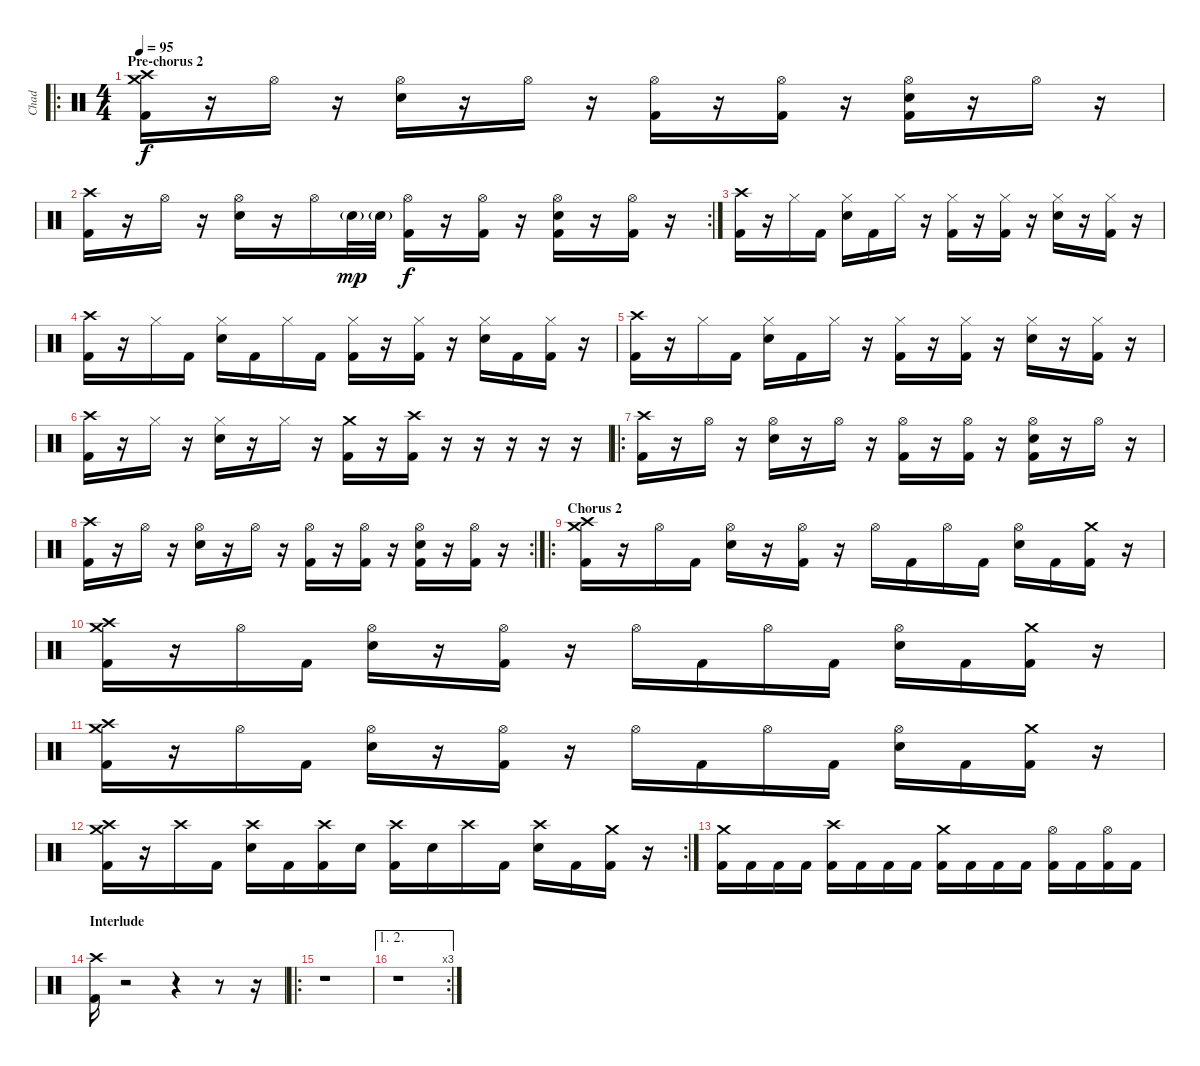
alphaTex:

\track ("Chad" "Chad") {instrument percussion}
\staff {score}
\articulation defaults
\ro
\ts (4 4)
\section ("" "Pre-chorus 2")
\tempo 95
\clef neutral
\ks c
("Kick (hit) 2" "Crash high (hit)" "Crash medium (hit)").16{dy f} r.16 "Hi-Hat (open)".16 r.16 ("Electric Snare (hit)" "Hi-Hat (open)").16 r.16 "Hi-Hat (open)".16 r.16 ("Kick (hit) 2" "Hi-Hat (open)").16 r.16 ("Kick (hit) 2" "Hi-Hat (open)").16 r.16 ("Kick (hit) 2" "Electric Snare (hit)" "Hi-Hat (open)").16 r.16 "Hi-Hat (open)".16 r.16 |
\rc 2
("Kick (hit) 2" "Crash high (hit)").16 r.16 "Hi-Hat (open)".16 r.16 ("Electric Snare (hit)" "Hi-Hat (open)").16 r.16 "Hi-Hat (open)".16 "Electric Snare (hit)"{g}.32{dy mp} "Electric Snare (hit)"{g}.32 ("Kick (hit) 2" "Hi-Hat (open)").16{dy f} r.16 ("Kick (hit) 2" "Hi-Hat (open)").16 r.16 ("Kick (hit) 2" "Electric Snare (hit)" "Hi-Hat (open)").16 r.16 ("Kick (hit) 2" "Hi-Hat (open)").16 r.16 |
("Kick (hit) 2" "Crash high (hit)").16 r.16 "Hi-Hat (closed)".16 "Kick (hit) 2".16 ("Electric Snare (hit)" "Hi-Hat (closed)").16 "Kick (hit) 2".16 "Hi-Hat (closed)".16 r.16 ("Kick (hit) 2" "Hi-Hat (closed)").16 r.16 ("Kick (hit) 2" "Hi-Hat (closed)").16 r.16 ("Electric Snare (hit)" "Hi-Hat (closed)").16 r.16 ("Kick (hit) 2" "Hi-Hat (closed)").16 r.16 |
("Kick (hit) 2" "Crash high (hit)").16 r.16 "Hi-Hat (closed)".16 "Kick (hit) 2".16 ("Electric Snare (hit)" "Hi-Hat (closed)").16 "Kick (hit) 2".16 "Hi-Hat (closed)".16 "Kick (hit) 2".16 ("Kick (hit) 2" "Hi-Hat (closed)").16 r.16 ("Kick (hit) 2" "Hi-Hat (closed)").16 r.16 ("Electric Snare (hit)" "Hi-Hat (closed)").16 "Kick (hit) 2".16 ("Kick (hit) 2" "Hi-Hat (closed)").16 r.16 |
("Kick (hit) 2" "Crash high (hit)").16 r.16 "Hi-Hat (closed)".16 "Kick (hit) 2".16 ("Electric Snare (hit)" "Hi-Hat (closed)").16 "Kick (hit) 2".16 "Hi-Hat (closed)".16 r.16 ("Kick (hit) 2" "Hi-Hat (closed)").16 r.16 ("Kick (hit) 2" "Hi-Hat (closed)").16 r.16 ("Electric Snare (hit)" "Hi-Hat (closed)").16 r.16 ("Kick (hit) 2" "Hi-Hat (closed)").16 r.16 |
("Kick (hit) 2" "Crash high (hit)").16 r.16 "Hi-Hat (closed)".16 r.16 ("Electric Snare (hit)" "Hi-Hat (closed)").16 r.16 "Hi-Hat (closed)".16 r.16 ("Kick (hit) 2" "Crash medium (hit)").16 r.16 ("Kick (hit) 2" "Crash high (hit)").16 r.16 r.16 r.16 r.16 r.16 |
\ro
("Kick (hit) 2" "Crash high (hit)").16 r.16 "Hi-Hat (open)".16 r.16 ("Electric Snare (hit)" "Hi-Hat (open)").16 r.16 "Hi-Hat (open)".16 r.16 ("Kick (hit) 2" "Hi-Hat (open)").16 r.16 ("Kick (hit) 2" "Hi-Hat (open)").16 r.16 ("Kick (hit) 2" "Electric Snare (hit)" "Hi-Hat (open)").16 r.16 "Hi-Hat (open)".16 r.16 |
\rc 2
("Kick (hit) 2" "Crash high (hit)").16 r.16 "Hi-Hat (open)".16 r.16 ("Electric Snare (hit)" "Hi-Hat (open)").16 r.16 "Hi-Hat (open)".16 r.16 ("Kick (hit) 2" "Hi-Hat (open)").16 r.16 ("Kick (hit) 2" "Hi-Hat (open)").16 r.16 ("Kick (hit) 2" "Electric Snare (hit)" "Hi-Hat (open)").16 r.16 ("Kick (hit) 2" "Hi-Hat (open)").16 r.16 |
\ro
\section ("" "Chorus 2")
("Kick (hit) 2" "Crash high (hit)" "Crash medium (hit)").16 r.16 "Hi-Hat (open)".16 "Kick (hit) 2".16 ("Electric Snare (hit)" "Hi-Hat (open)").16 r.16 ("Kick (hit) 2" "Hi-Hat (open)").16 r.16 "Hi-Hat (open)".16 "Kick (hit) 2".16 "Hi-Hat (open)".16 "Kick (hit) 2".16 ("Electric Snare (hit)" "Hi-Hat (open)").16 "Kick (hit) 2".16 ("Kick (hit) 2" "Crash medium (hit)").16 r.16 |
("Kick (hit) 2" "Crash high (hit)" "Crash medium (hit)").16 r.16 "Hi-Hat (open)".16 "Kick (hit) 2".16 ("Electric Snare (hit)" "Hi-Hat (open)").16 r.16 ("Kick (hit) 2" "Hi-Hat (open)").16 r.16 "Hi-Hat (open)".16 "Kick (hit) 2".16 "Hi-Hat (open)".16 "Kick (hit) 2".16 ("Electric Snare (hit)" "Hi-Hat (open)").16 "Kick (hit) 2".16 ("Kick (hit) 2" "Crash medium (hit)").16 r.16 |
("Kick (hit) 2" "Crash high (hit)" "Crash medium (hit)").16 r.16 "Hi-Hat (open)".16 "Kick (hit) 2".16 ("Electric Snare (hit)" "Hi-Hat (open)").16 r.16 ("Kick (hit) 2" "Hi-Hat (open)").16 r.16 "Hi-Hat (open)".16 "Kick (hit) 2".16 "Hi-Hat (open)".16 "Kick (hit) 2".16 ("Electric Snare (hit)" "Hi-Hat (open)").16 "Kick (hit) 2".16 ("Kick (hit) 2" "Crash medium (hit)").16 r.16 |
\rc 2
("Kick (hit) 2" "Crash high (hit)" "Crash medium (hit)").16 r.16 "Crash high (hit)".16 "Kick (hit) 2".16 ("Electric Snare (hit)" "Crash high (hit)").16 "Kick (hit) 2".16 ("Kick (hit) 2" "Crash high (hit)").16 "Electric Snare (hit)".16 ("Kick (hit) 2" "Crash high (hit)").16 "Electric Snare (hit)".16 "Crash high (hit)".16 "Kick (hit) 2".16 ("Electric Snare (hit)" "Crash high (hit)").16 "Kick (hit) 2".16 ("Kick (hit) 2" "Crash medium (hit)").16 r.16 |
("Kick (hit) 2" "Crash medium (hit)").16 "Kick (hit) 2".16 "Kick (hit) 2".16 "Kick (hit) 2".16 ("Kick (hit) 2" "Crash high (hit)").16 "Kick (hit) 2".16 "Kick (hit) 2".16 "Kick (hit) 2".16 ("Kick (hit) 2" "Crash medium (hit)").16 "Kick (hit) 2".16 "Kick (hit) 2".16 "Kick (hit) 2".16 ("Kick (hit) 2" "Hi-Hat (open)").16 "Kick (hit) 2".16 ("Kick (hit) 2" "Hi-Hat (open)").16 "Kick (hit) 2".16 |
\section ("" "Interlude")
("Kick (hit) 2" "Crash high (hit)").16 r.2 r.4 r.8 r.16 |
\ro
r.1 |
\ae (1 2)
\rc 3
r.1
